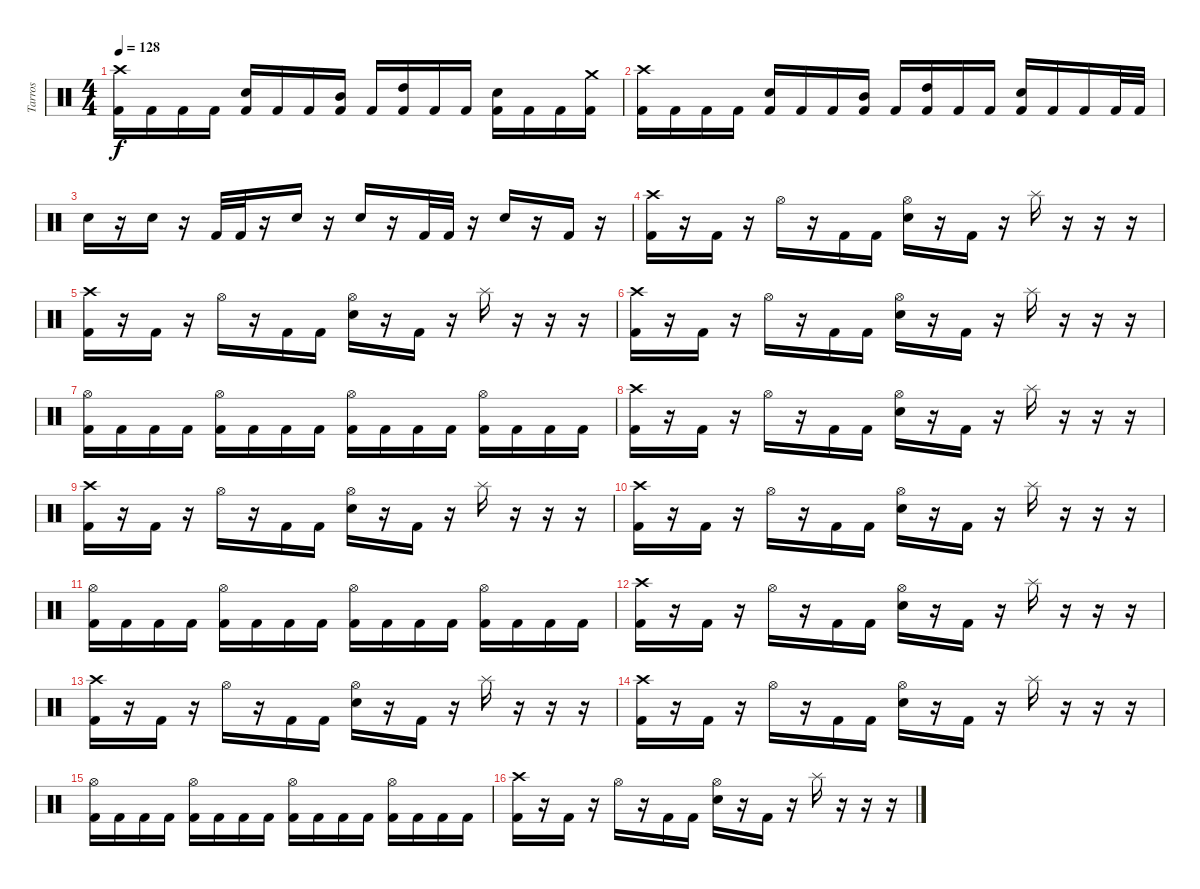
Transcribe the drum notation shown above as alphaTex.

\track ("Tarros" "Tarros") {instrument percussion}
\staff {score}
\articulation defaults
\ts (4 4)
\tempo 128
\clef neutral
\ks c
("Crash high (hit)" "Kick (hit) 2").16{dy f} "Kick (hit) 2".16 "Kick (hit) 2".16 "Kick (hit) 2".16 ("Electric Snare (hit)" "Kick (hit) 2").16 "Kick (hit) 2".16 "Kick (hit) 2".16 ("Mid Tom (hit)" "Kick (hit) 2").16 "Kick (hit) 2".16 ("High Tom (hit)" "Kick (hit) 2").16 "Kick (hit) 2".16 "Kick (hit) 2".16 ("Electric Snare (hit)" "Kick (hit) 2").16 "Kick (hit) 2".16 "Kick (hit) 2".16 ("Crash medium (hit)" "Kick (hit) 2").16 |
("Crash high (hit)" "Kick (hit) 2").16 "Kick (hit) 2".16 "Kick (hit) 2".16 "Kick (hit) 2".16 ("Electric Snare (hit)" "Kick (hit) 2").16 "Kick (hit) 2".16 "Kick (hit) 2".16 ("Mid Tom (hit)" "Kick (hit) 2").16 "Kick (hit) 2".16 ("High Tom (hit)" "Kick (hit) 2").16 "Kick (hit) 2".16 "Kick (hit) 2".16 ("Electric Snare (hit)" "Kick (hit) 2").16 "Kick (hit) 2".16 "Kick (hit) 2".16 "Kick (hit) 2".32 "Kick (hit) 2".32 |
"Electric Snare (hit)".16 r.16 "Electric Snare (hit)".16 r.16 "Kick (hit) 2".32 "Kick (hit) 2".32 r.16 "Electric Snare (hit)".16 r.16 "Electric Snare (hit)".16 r.16 "Kick (hit) 2".32 "Kick (hit) 2".32 r.16 "Electric Snare (hit)".16 r.16 "Kick (hit) 2".16 r.16 |
("Crash high (hit)" "Kick (hit) 2").16 r.16 "Kick (hit) 2".16 r.16 "Hi-Hat (open)".16 r.16 "Kick (hit) 2".16 "Kick (hit) 2".16 ("Hi-Hat (open)" "Electric Snare (hit)").16 r.16 "Kick (hit) 2".16 r.16 "Splash (hit)".16 r.16 r.16 r.16 |
("Crash high (hit)" "Kick (hit) 2").16 r.16 "Kick (hit) 2".16 r.16 "Hi-Hat (open)".16 r.16 "Kick (hit) 2".16 "Kick (hit) 2".16 ("Hi-Hat (open)" "Electric Snare (hit)").16 r.16 "Kick (hit) 2".16 r.16 "Splash (hit)".16 r.16 r.16 r.16 |
("Crash high (hit)" "Kick (hit) 2").16 r.16 "Kick (hit) 2".16 r.16 "Hi-Hat (open)".16 r.16 "Kick (hit) 2".16 "Kick (hit) 2".16 ("Hi-Hat (open)" "Electric Snare (hit)").16 r.16 "Kick (hit) 2".16 r.16 "Splash (hit)".16 r.16 r.16 r.16 |
("Hi-Hat (open)" "Kick (hit) 2").16 "Kick (hit) 2".16 "Kick (hit) 2".16 "Kick (hit) 2".16 ("Hi-Hat (open)" "Kick (hit) 2").16 "Kick (hit) 2".16 "Kick (hit) 2".16 "Kick (hit) 2".16 ("Hi-Hat (open)" "Kick (hit) 2").16 "Kick (hit) 2".16 "Kick (hit) 2".16 "Kick (hit) 2".16 ("Hi-Hat (open)" "Kick (hit) 2").16 "Kick (hit) 2".16 "Kick (hit) 2".16 "Kick (hit) 2".16 |
("Crash high (hit)" "Kick (hit) 2").16 r.16 "Kick (hit) 2".16 r.16 "Hi-Hat (open)".16 r.16 "Kick (hit) 2".16 "Kick (hit) 2".16 ("Hi-Hat (open)" "Electric Snare (hit)").16 r.16 "Kick (hit) 2".16 r.16 "Splash (hit)".16 r.16 r.16 r.16 |
("Crash high (hit)" "Kick (hit) 2").16 r.16 "Kick (hit) 2".16 r.16 "Hi-Hat (open)".16 r.16 "Kick (hit) 2".16 "Kick (hit) 2".16 ("Hi-Hat (open)" "Electric Snare (hit)").16 r.16 "Kick (hit) 2".16 r.16 "Splash (hit)".16 r.16 r.16 r.16 |
("Crash high (hit)" "Kick (hit) 2").16 r.16 "Kick (hit) 2".16 r.16 "Hi-Hat (open)".16 r.16 "Kick (hit) 2".16 "Kick (hit) 2".16 ("Hi-Hat (open)" "Electric Snare (hit)").16 r.16 "Kick (hit) 2".16 r.16 "Splash (hit)".16 r.16 r.16 r.16 |
("Hi-Hat (open)" "Kick (hit) 2").16 "Kick (hit) 2".16 "Kick (hit) 2".16 "Kick (hit) 2".16 ("Hi-Hat (open)" "Kick (hit) 2").16 "Kick (hit) 2".16 "Kick (hit) 2".16 "Kick (hit) 2".16 ("Hi-Hat (open)" "Kick (hit) 2").16 "Kick (hit) 2".16 "Kick (hit) 2".16 "Kick (hit) 2".16 ("Hi-Hat (open)" "Kick (hit) 2").16 "Kick (hit) 2".16 "Kick (hit) 2".16 "Kick (hit) 2".16 |
("Crash high (hit)" "Kick (hit) 2").16 r.16 "Kick (hit) 2".16 r.16 "Hi-Hat (open)".16 r.16 "Kick (hit) 2".16 "Kick (hit) 2".16 ("Hi-Hat (open)" "Electric Snare (hit)").16 r.16 "Kick (hit) 2".16 r.16 "Splash (hit)".16 r.16 r.16 r.16 |
("Crash high (hit)" "Kick (hit) 2").16 r.16 "Kick (hit) 2".16 r.16 "Hi-Hat (open)".16 r.16 "Kick (hit) 2".16 "Kick (hit) 2".16 ("Hi-Hat (open)" "Electric Snare (hit)").16 r.16 "Kick (hit) 2".16 r.16 "Splash (hit)".16 r.16 r.16 r.16 |
("Crash high (hit)" "Kick (hit) 2").16 r.16 "Kick (hit) 2".16 r.16 "Hi-Hat (open)".16 r.16 "Kick (hit) 2".16 "Kick (hit) 2".16 ("Hi-Hat (open)" "Electric Snare (hit)").16 r.16 "Kick (hit) 2".16 r.16 "Splash (hit)".16 r.16 r.16 r.16 |
("Hi-Hat (open)" "Kick (hit) 2").16 "Kick (hit) 2".16 "Kick (hit) 2".16 "Kick (hit) 2".16 ("Hi-Hat (open)" "Kick (hit) 2").16 "Kick (hit) 2".16 "Kick (hit) 2".16 "Kick (hit) 2".16 ("Hi-Hat (open)" "Kick (hit) 2").16 "Kick (hit) 2".16 "Kick (hit) 2".16 "Kick (hit) 2".16 ("Hi-Hat (open)" "Kick (hit) 2").16 "Kick (hit) 2".16 "Kick (hit) 2".16 "Kick (hit) 2".16 |
("Crash high (hit)" "Kick (hit) 2").16 r.16 "Kick (hit) 2".16 r.16 "Hi-Hat (open)".16 r.16 "Kick (hit) 2".16 "Kick (hit) 2".16 ("Hi-Hat (open)" "Electric Snare (hit)").16 r.16 "Kick (hit) 2".16 r.16 "Splash (hit)".16 r.16 r.16 r.16
